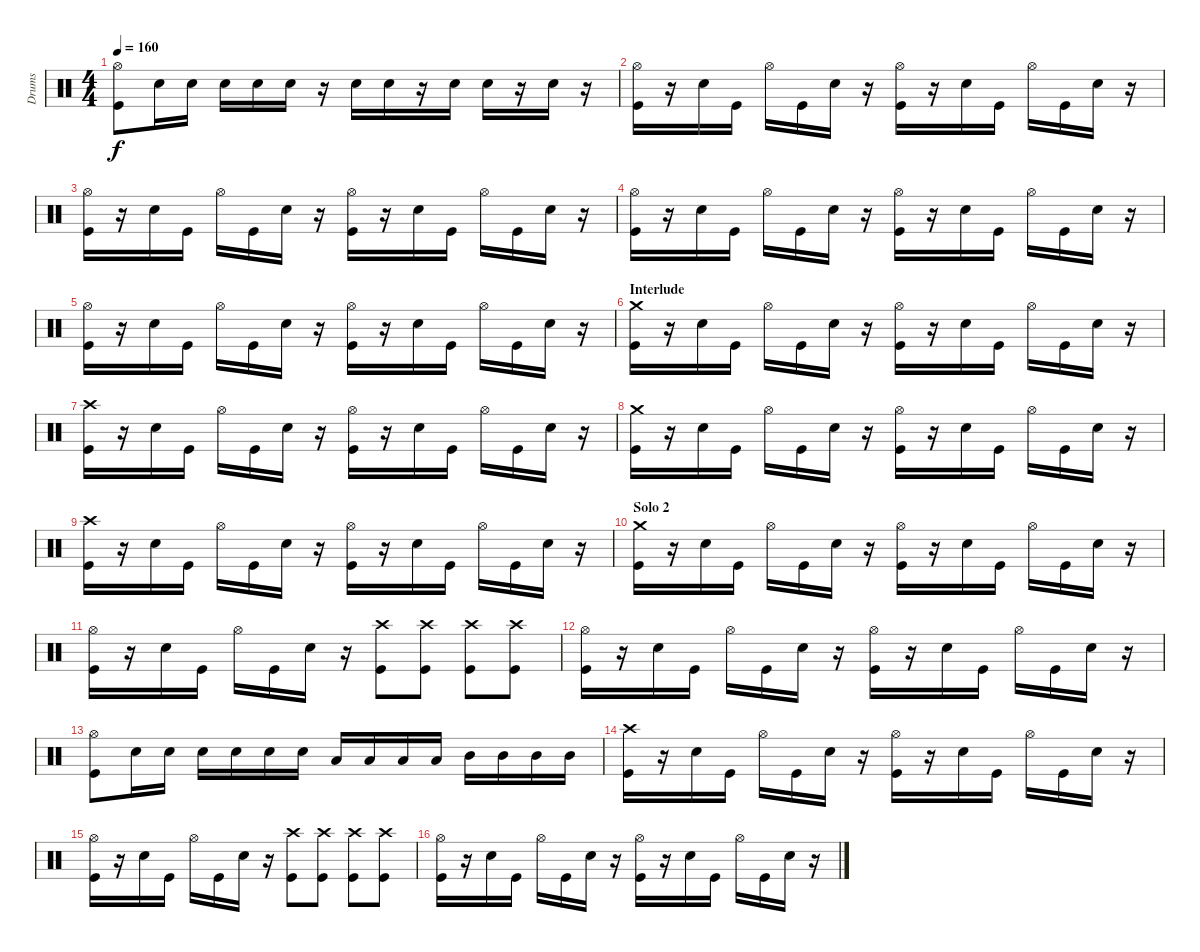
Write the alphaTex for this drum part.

\track ("Drums" "Drums") {instrument percussion}
\staff {score}
\articulation defaults
\ts (4 4)
\tempo 160
\clef neutral
\ks c
("Kick (hit)" "Hi-Hat (open)").8{dy f} "Snare (hit) 2".16 "Snare (hit) 2".16 "Snare (hit) 2".16 "Snare (hit) 2".16 "Snare (hit) 2".16 r.16 "Snare (hit) 2".16 "Snare (hit) 2".16 r.16 "Snare (hit) 2".16 "Snare (hit) 2".16 r.16 "Snare (hit) 2".16 r.16 |
("Kick (hit)" "Hi-Hat (open)").16 r.16 "Snare (hit) 2".16 "Kick (hit)".16 "Hi-Hat (open)".16 "Kick (hit)".16 "Snare (hit) 2".16 r.16 ("Kick (hit)" "Hi-Hat (open)").16 r.16 "Snare (hit) 2".16 "Kick (hit)".16 "Hi-Hat (open)".16 "Kick (hit)".16 "Snare (hit) 2".16 r.16 |
("Kick (hit)" "Hi-Hat (open)").16 r.16 "Snare (hit) 2".16 "Kick (hit)".16 "Hi-Hat (open)".16 "Kick (hit)".16 "Snare (hit) 2".16 r.16 ("Kick (hit)" "Hi-Hat (open)").16 r.16 "Snare (hit) 2".16 "Kick (hit)".16 "Hi-Hat (open)".16 "Kick (hit)".16 "Snare (hit) 2".16 r.16 |
("Kick (hit)" "Hi-Hat (open)").16 r.16 "Snare (hit) 2".16 "Kick (hit)".16 "Hi-Hat (open)".16 "Kick (hit)".16 "Snare (hit) 2".16 r.16 ("Kick (hit)" "Hi-Hat (open)").16 r.16 "Snare (hit) 2".16 "Kick (hit)".16 "Hi-Hat (open)".16 "Kick (hit)".16 "Snare (hit) 2".16 r.16 |
("Kick (hit)" "Hi-Hat (open)").16 r.16 "Snare (hit) 2".16 "Kick (hit)".16 "Hi-Hat (open)".16 "Kick (hit)".16 "Snare (hit) 2".16 r.16 ("Kick (hit)" "Hi-Hat (open)").16 r.16 "Snare (hit) 2".16 "Kick (hit)".16 "Hi-Hat (open)".16 "Kick (hit)".16 "Snare (hit) 2".16 r.16 |
\section ("" "Interlude")
("Kick (hit)" "Crash medium (hit)").16 r.16 "Snare (hit) 2".16 "Kick (hit)".16 "Hi-Hat (open)".16 "Kick (hit)".16 "Snare (hit) 2".16 r.16 ("Kick (hit)" "Hi-Hat (open)").16 r.16 "Snare (hit) 2".16 "Kick (hit)".16 "Hi-Hat (open)".16 "Kick (hit)".16 "Snare (hit) 2".16 r.16 |
("Kick (hit)" "Crash high (hit)").16 r.16 "Snare (hit) 2".16 "Kick (hit)".16 "Hi-Hat (open)".16 "Kick (hit)".16 "Snare (hit) 2".16 r.16 ("Kick (hit)" "Hi-Hat (open)").16 r.16 "Snare (hit) 2".16 "Kick (hit)".16 "Hi-Hat (open)".16 "Kick (hit)".16 "Snare (hit) 2".16 r.16 |
("Kick (hit)" "Crash medium (hit)").16 r.16 "Snare (hit) 2".16 "Kick (hit)".16 "Hi-Hat (open)".16 "Kick (hit)".16 "Snare (hit) 2".16 r.16 ("Kick (hit)" "Hi-Hat (open)").16 r.16 "Snare (hit) 2".16 "Kick (hit)".16 "Hi-Hat (open)".16 "Kick (hit)".16 "Snare (hit) 2".16 r.16 |
("Kick (hit)" "Crash high (hit)").16 r.16 "Snare (hit) 2".16 "Kick (hit)".16 "Hi-Hat (open)".16 "Kick (hit)".16 "Snare (hit) 2".16 r.16 ("Kick (hit)" "Hi-Hat (open)").16 r.16 "Snare (hit) 2".16 "Kick (hit)".16 "Hi-Hat (open)".16 "Kick (hit)".16 "Snare (hit) 2".16 r.16 |
\section ("" "Solo 2")
("Kick (hit)" "Crash medium (hit)").16 r.16 "Snare (hit) 2".16 "Kick (hit)".16 "Hi-Hat (open)".16 "Kick (hit)".16 "Snare (hit) 2".16 r.16 ("Kick (hit)" "Hi-Hat (open)").16 r.16 "Snare (hit) 2".16 "Kick (hit)".16 "Hi-Hat (open)".16 "Kick (hit)".16 "Snare (hit) 2".16 r.16 |
("Kick (hit)" "Hi-Hat (open)").16 r.16 "Snare (hit) 2".16 "Kick (hit)".16 "Hi-Hat (open)".16 "Kick (hit)".16 "Snare (hit) 2".16 r.16 ("Kick (hit)" "Crash high (hit)").8 ("Kick (hit)" "Crash high (hit)").8 ("Kick (hit)" "Crash high (hit)").8 ("Kick (hit)" "Crash high (hit)").8 |
("Kick (hit)" "Hi-Hat (open)").16 r.16 "Snare (hit) 2".16 "Kick (hit)".16 "Hi-Hat (open)".16 "Kick (hit)".16 "Snare (hit) 2".16 r.16 ("Kick (hit)" "Hi-Hat (open)").16 r.16 "Snare (hit) 2".16 "Kick (hit)".16 "Hi-Hat (open)".16 "Kick (hit)".16 "Snare (hit) 2".16 r.16 |
("Kick (hit)" "Hi-Hat (open)").8 "Snare (hit) 2".16 "Snare (hit) 2".16 "Snare (hit) 2".16 "Snare (hit) 2".16 "Snare (hit) 2".16 "Snare (hit) 2".16 "Low Tom (hit)".16 "Low Tom (hit)".16 "Low Tom (hit)".16 "Low Tom (hit)".16 "Mid Tom (hit)".16 "Mid Tom (hit)".16 "Mid Tom (hit)".16 "Mid Tom (hit)".16 |
("Kick (hit)" "Crash high (hit)").16 r.16 "Snare (hit) 2".16 "Kick (hit)".16 "Hi-Hat (open)".16 "Kick (hit)".16 "Snare (hit) 2".16 r.16 ("Kick (hit)" "Hi-Hat (open)").16 r.16 "Snare (hit) 2".16 "Kick (hit)".16 "Hi-Hat (open)".16 "Kick (hit)".16 "Snare (hit) 2".16 r.16 |
("Kick (hit)" "Hi-Hat (open)").16 r.16 "Snare (hit) 2".16 "Kick (hit)".16 "Hi-Hat (open)".16 "Kick (hit)".16 "Snare (hit) 2".16 r.16 ("Kick (hit)" "Crash high (hit)").8 ("Kick (hit)" "Crash high (hit)").8 ("Kick (hit)" "Crash high (hit)").8 ("Kick (hit)" "Crash high (hit)").8 |
("Kick (hit)" "Hi-Hat (open)").16 r.16 "Snare (hit) 2".16 "Kick (hit)".16 "Hi-Hat (open)".16 "Kick (hit)".16 "Snare (hit) 2".16 r.16 ("Kick (hit)" "Hi-Hat (open)").16 r.16 "Snare (hit) 2".16 "Kick (hit)".16 "Hi-Hat (open)".16 "Kick (hit)".16 "Snare (hit) 2".16 r.16
